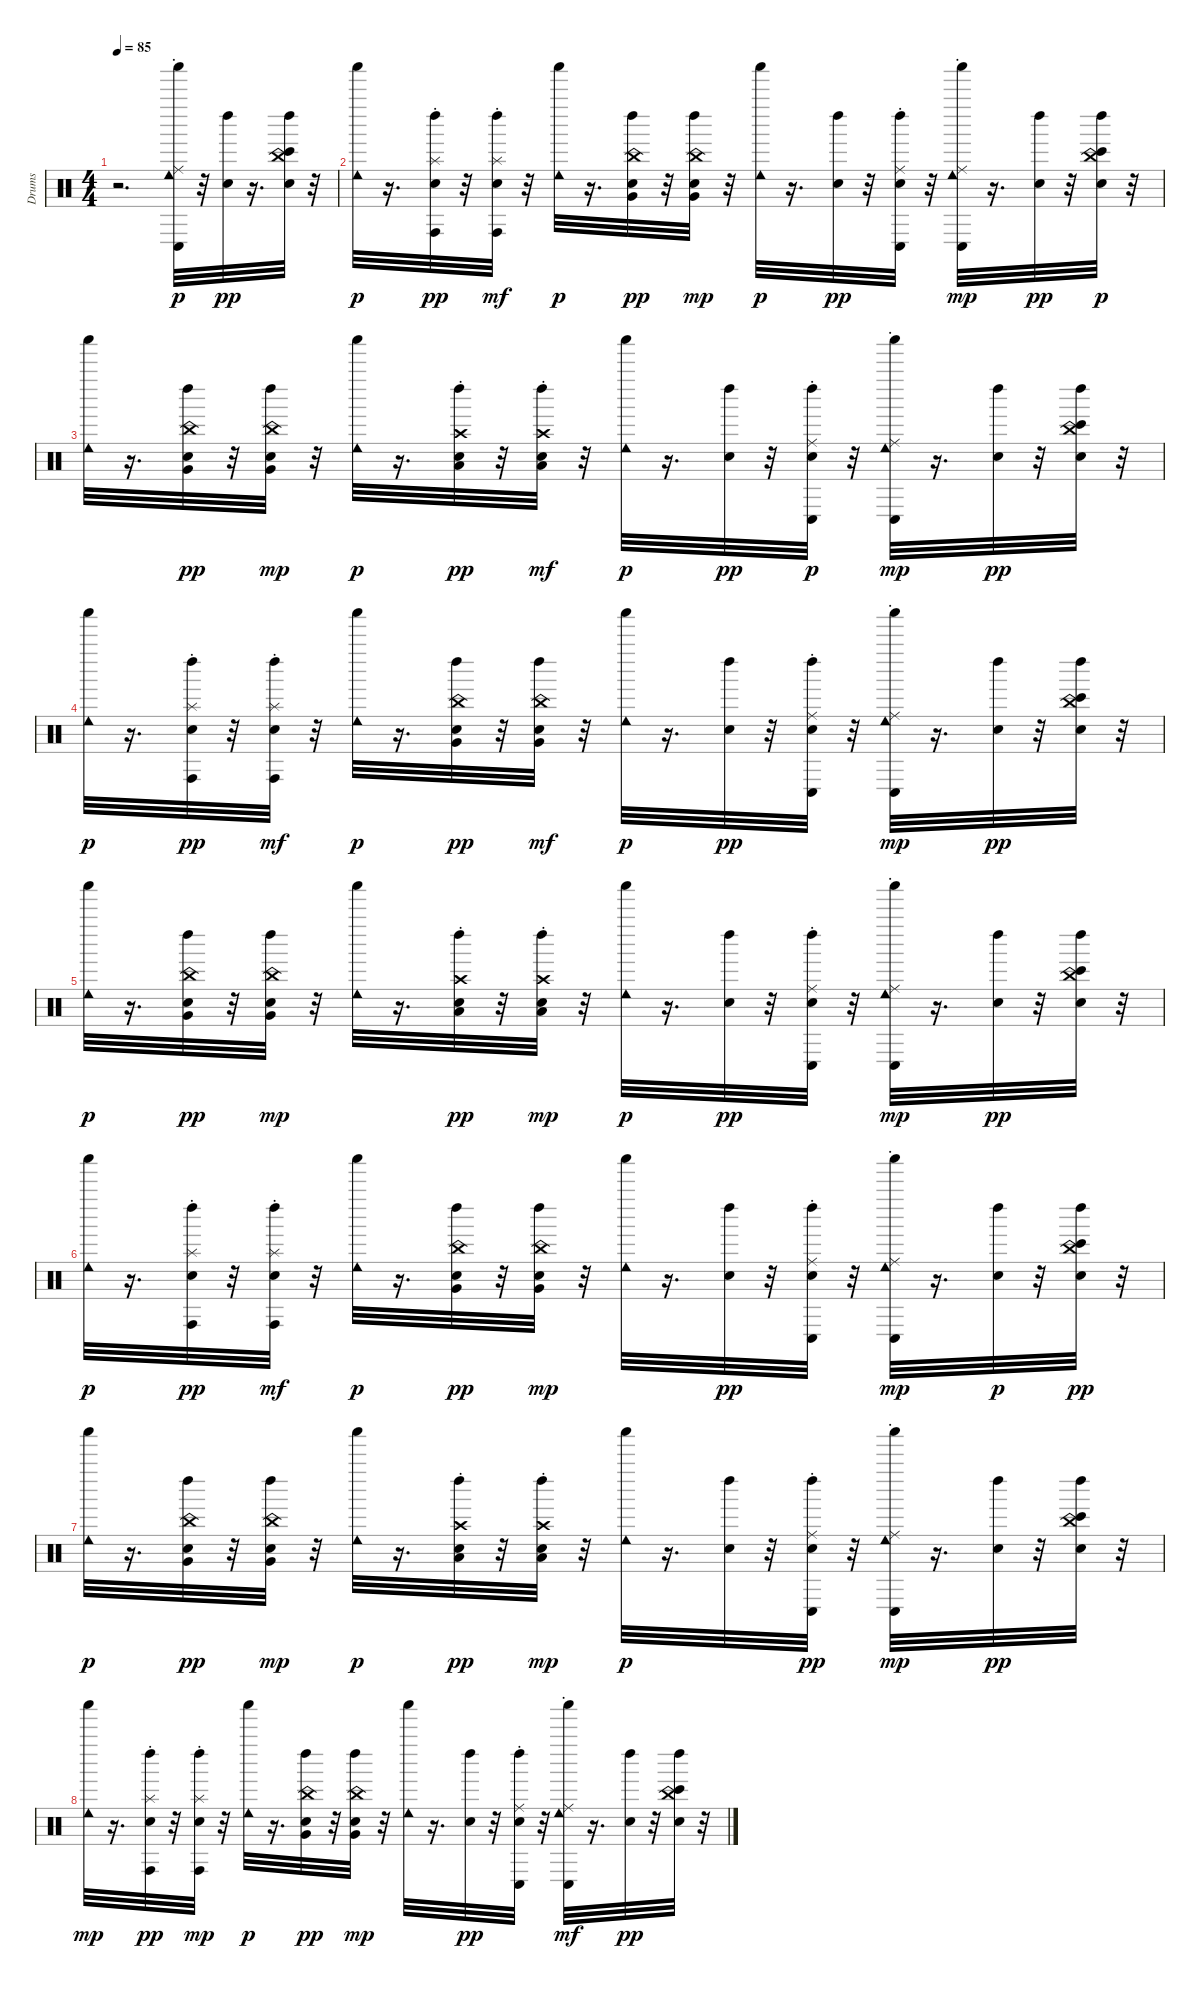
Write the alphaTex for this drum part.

\track ("Drums" "Drums") {instrument percussion}
\staff {score}
\articulation defaults
\ts (4 4)
\tempo 85
\clef neutral
\ks c
r.2{d dy p} ("Shaker (hit)" "Cowbell low (hit)" "Conga low (hit)" "Ride (choke)").32{balance 8} r.32 ("Left Maraca (hit)" "Snare (hit)").32{dy pp} r.16{d} ("Bongo High (hit)" "China (choke)" "Left Maraca (hit)" "Snare (hit)").32 r.32 |
("Shaker (hit)" "Cowbell low (hit)").32{dy p} r.16{d} ("Splash (choke)" "Conga high (hit)" "Snare (hit)" "Left Maraca (hit)").32{dy pp} r.32 ("Snare (hit)" "Left Maraca (hit)" "Splash (choke)" "Conga high (hit)").32{dy mf} r.32 ("Shaker (hit)" "Cowbell low (hit)").32{dy p} r.16{d} ("China (choke)" "Very Low Tom (hit)" "Left Maraca (hit)" "Snare (hit)").32{dy pp} r.32 ("Left Maraca (hit)" "Snare (hit)" "China (choke)" "Very Low Tom (hit)").32{dy mp} r.32 ("Shaker (hit)" "Cowbell low (hit)").32{dy p} r.16{d} ("Left Maraca (hit)" "Snare (hit)").32{dy pp} r.32 ("Ride (choke)" "Conga low (hit)" "Snare (hit)" "Left Maraca (hit)").32 r.32 ("Shaker (hit)" "Conga low (hit)" "Cowbell low (hit)" "Ride (choke)").32{dy mp} r.16{d} ("Left Maraca (hit)" "Snare (hit)").32{dy pp} r.32 ("Bongo High (hit)" "China (choke)" "Snare (hit)" "Left Maraca (hit)").32{dy p} r.32 |
("Shaker (hit)" "Cowbell low (hit)").32 r.16{d} ("China (choke)" "Very Low Tom (hit)" "Left Maraca (hit)" "Snare (hit)").32{dy pp} r.32 ("Left Maraca (hit)" "Snare (hit)" "China (choke)" "Very Low Tom (hit)").32{dy mp} r.32 ("Shaker (hit)" "Cowbell low (hit)").32{dy p} r.16{d} ("Crash high (choke)" "Left Maraca (hit)" "Low Floor Tom (hit)" "Snare (hit)").32{dy pp} r.32 ("Left Maraca (hit)" "Snare (hit)" "Low Floor Tom (hit)" "Crash high (choke)").32{dy mf} r.32 ("Shaker (hit)" "Cowbell low (hit)").32{dy p} r.16{d} ("Left Maraca (hit)" "Snare (hit)").32{dy pp} r.32 ("Ride (choke)" "Conga low (hit)" "Snare (hit)" "Left Maraca (hit)").32{dy p} r.32 ("Shaker (hit)" "Cowbell low (hit)" "Conga low (hit)" "Ride (choke)").32{dy mp} r.16{d} ("Left Maraca (hit)" "Snare (hit)").32{dy pp} r.32 ("Bongo High (hit)" "China (choke)" "Left Maraca (hit)" "Snare (hit)").32 r.32 |
("Shaker (hit)" "Cowbell low (hit)").32{dy p} r.16{d} ("Conga high (hit)" "Splash (choke)" "Left Maraca (hit)" "Snare (hit)").32{dy pp} r.32 ("Snare (hit)" "Left Maraca (hit)" "Splash (choke)" "Conga high (hit)").32{dy mf} r.32 ("Shaker (hit)" "Cowbell low (hit)").32{dy p} r.16{d} ("China (choke)" "Very Low Tom (hit)" "Left Maraca (hit)" "Snare (hit)").32{dy pp} r.32 ("Snare (hit)" "Left Maraca (hit)" "Very Low Tom (hit)" "China (choke)").32{dy mf} r.32 ("Shaker (hit)" "Cowbell low (hit)").32{dy p} r.16{d} ("Snare (hit)" "Left Maraca (hit)").32{dy pp} r.32 ("Conga low (hit)" "Left Maraca (hit)" "Ride (choke)" "Snare (hit)").32 r.32 ("Shaker (hit)" "Cowbell low (hit)" "Conga low (hit)" "Ride (choke)").32{dy mp} r.16{d} ("Left Maraca (hit)" "Snare (hit)").32{dy pp} r.32 ("Bongo High (hit)" "China (choke)" "Left Maraca (hit)" "Snare (hit)").32 r.32 |
("Shaker (hit)" "Cowbell low (hit)").32{dy p} r.16{d} ("China (choke)" "Very Low Tom (hit)" "Snare (hit)" "Left Maraca (hit)").32{dy pp} r.32 ("Left Maraca (hit)" "Snare (hit)" "China (choke)" "Very Low Tom (hit)").32{dy mp} r.32 ("Cowbell low (hit)" "Shaker (hit)").32 r.16{d} ("Crash high (choke)" "Low Floor Tom (hit)" "Left Maraca (hit)" "Snare (hit)").32{dy pp} r.32 ("Left Maraca (hit)" "Snare (hit)" "Crash high (choke)" "Low Floor Tom (hit)").32{dy mp} r.32 ("Shaker (hit)" "Cowbell low (hit)").32{dy p} r.16{d} ("Left Maraca (hit)" "Snare (hit)").32{dy pp} r.32 ("Conga low (hit)" "Left Maraca (hit)" "Ride (choke)" "Snare (hit)").32 r.32 ("Shaker (hit)" "Cowbell low (hit)" "Conga low (hit)" "Ride (choke)").32{dy mp} r.16{d} ("Left Maraca (hit)" "Snare (hit)").32{dy pp} r.32 ("Bongo High (hit)" "China (choke)" "Left Maraca (hit)" "Snare (hit)").32 r.32 |
("Shaker (hit)" "Cowbell low (hit)").32{dy p} r.16{d} ("Conga high (hit)" "Splash (choke)" "Left Maraca (hit)" "Snare (hit)").32{dy pp} r.32 ("Snare (hit)" "Left Maraca (hit)" "Splash (choke)" "Conga high (hit)").32{dy mf} r.32 ("Shaker (hit)" "Cowbell low (hit)").32{dy p} r.16{d} ("China (choke)" "Very Low Tom (hit)" "Snare (hit)" "Left Maraca (hit)").32{dy pp} r.32 ("Left Maraca (hit)" "Snare (hit)" "China (choke)" "Very Low Tom (hit)").32{dy mp} r.32 ("Cowbell low (hit)" "Shaker (hit)").32 r.16{d} ("Left Maraca (hit)" "Snare (hit)").32{dy pp} r.32 ("Ride (choke)" "Conga low (hit)" "Left Maraca (hit)" "Snare (hit)").32 r.32 ("Shaker (hit)" "Cowbell low (hit)" "Conga low (hit)" "Ride (choke)").32{dy mp} r.16{d} ("Snare (hit)" "Left Maraca (hit)").32{dy p} r.32 ("Bongo High (hit)" "China (choke)" "Left Maraca (hit)" "Snare (hit)").32{dy pp} r.32 |
("Shaker (hit)" "Cowbell low (hit)").32{dy p} r.16{d} ("China (choke)" "Very Low Tom (hit)" "Left Maraca (hit)" "Snare (hit)").32{dy pp} r.32 ("Snare (hit)" "Left Maraca (hit)" "China (choke)" "Very Low Tom (hit)").32{dy mp} r.32 ("Shaker (hit)" "Cowbell low (hit)").32{dy p} r.16{d} ("Low Floor Tom (hit)" "Crash high (choke)" "Snare (hit)" "Left Maraca (hit)").32{dy pp} r.32 ("Left Maraca (hit)" "Crash high (choke)" "Snare (hit)" "Low Floor Tom (hit)").32{dy mp} r.32 ("Shaker (hit)" "Cowbell low (hit)").32{dy p} r.16{d} ("Snare (hit)" "Left Maraca (hit)").32 r.32 ("Ride (choke)" "Conga low (hit)" "Left Maraca (hit)" "Snare (hit)").32{dy pp} r.32 ("Shaker (hit)" "Cowbell low (hit)" "Conga low (hit)" "Ride (choke)").32{dy mp} r.16{d} ("Left Maraca (hit)" "Snare (hit)").32{dy pp} r.32 ("Bongo High (hit)" "Left Maraca (hit)" "China (choke)" "Snare (hit)").32 r.32 |
("Cowbell low (hit)" "Shaker (hit)").32{dy mp} r.16{d} ("Conga high (hit)" "Splash (choke)" "Left Maraca (hit)" "Snare (hit)").32{dy pp} r.32 ("Left Maraca (hit)" "Snare (hit)" "Conga high (hit)" "Splash (choke)").32{dy mp} r.32 ("Shaker (hit)" "Cowbell low (hit)").32{dy p} r.16{d} ("China (choke)" "Very Low Tom (hit)" "Left Maraca (hit)" "Snare (hit)").32{dy pp} r.32 ("Left Maraca (hit)" "Snare (hit)" "China (choke)" "Very Low Tom (hit)").32{dy mp} r.32 ("Cowbell low (hit)" "Shaker (hit)").32 r.16{d} ("Left Maraca (hit)" "Snare (hit)").32{dy pp} r.32 ("Conga low (hit)" "Ride (choke)" "Left Maraca (hit)" "Snare (hit)").32 r.32 ("Shaker (hit)" "Cowbell low (hit)" "Ride (choke)" "Conga low (hit)").32{dy mf} r.16{d} ("Left Maraca (hit)" "Snare (hit)").32{dy pp} r.32 ("Bongo High (hit)" "China (choke)" "Left Maraca (hit)" "Snare (hit)").32 r.32
